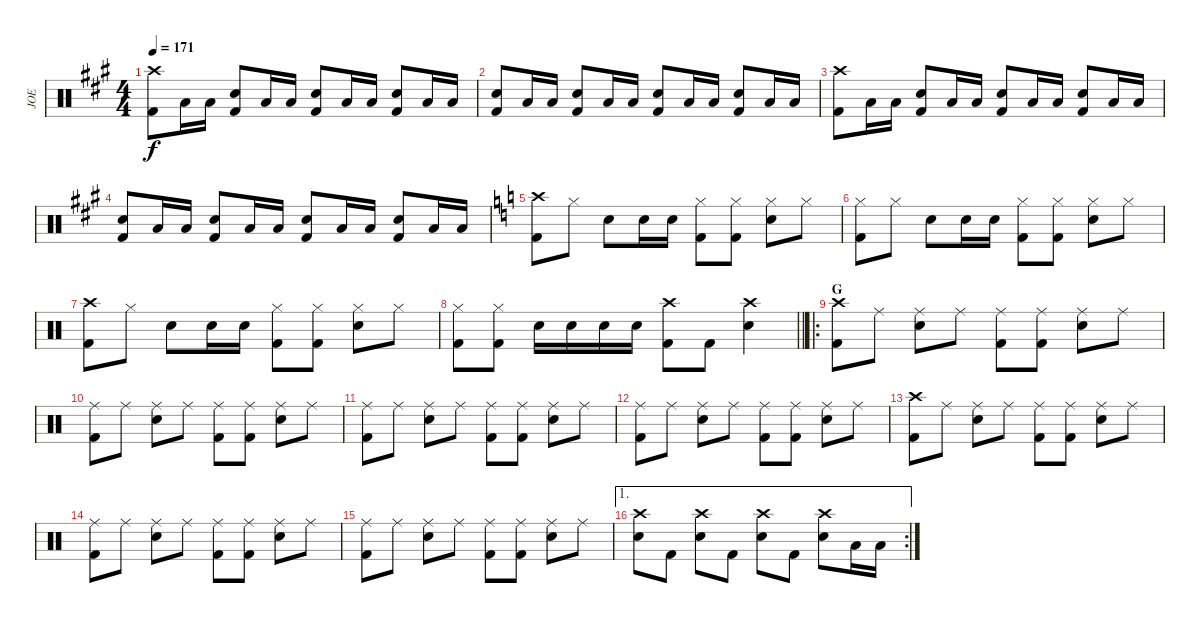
\track ("JOE" "JOE") {instrument percussion}
\staff {score}
\articulation defaults
\ts (4 4)
\tempo 171
\clef neutral
\ks a
("Crash high (hit)" "Kick (hit) 2").8{dy f} "Low Floor Tom (hit)".16 "Low Floor Tom (hit)".16 ("Snare (hit) 2" "Kick (hit) 2").8 "Low Floor Tom (hit)".16 "Low Floor Tom (hit)".16 ("Snare (hit) 2" "Kick (hit) 2").8 "Low Floor Tom (hit)".16 "Low Floor Tom (hit)".16 ("Snare (hit) 2" "Kick (hit) 2").8 "Low Floor Tom (hit)".16 "Low Floor Tom (hit)".16 |
("Snare (hit) 2" "Kick (hit) 2").8 "Low Floor Tom (hit)".16 "Low Floor Tom (hit)".16 ("Snare (hit) 2" "Kick (hit) 2").8 "Low Floor Tom (hit)".16 "Low Floor Tom (hit)".16 ("Snare (hit) 2" "Kick (hit) 2").8 "Low Floor Tom (hit)".16 "Low Floor Tom (hit)".16 ("Snare (hit) 2" "Kick (hit) 2").8 "Low Floor Tom (hit)".16 "Low Floor Tom (hit)".16 |
("Crash high (hit)" "Kick (hit) 2").8 "Low Floor Tom (hit)".16 "Low Floor Tom (hit)".16 ("Snare (hit) 2" "Kick (hit) 2").8 "Low Floor Tom (hit)".16 "Low Floor Tom (hit)".16 ("Snare (hit) 2" "Kick (hit) 2").8 "Low Floor Tom (hit)".16 "Low Floor Tom (hit)".16 ("Snare (hit) 2" "Kick (hit) 2").8 "Low Floor Tom (hit)".16 "Low Floor Tom (hit)".16 |
("Snare (hit) 2" "Kick (hit) 2").8 "Low Floor Tom (hit)".16 "Low Floor Tom (hit)".16 ("Snare (hit) 2" "Kick (hit) 2").8 "Low Floor Tom (hit)".16 "Low Floor Tom (hit)".16 ("Snare (hit) 2" "Kick (hit) 2").8 "Low Floor Tom (hit)".16 "Low Floor Tom (hit)".16 ("Snare (hit) 2" "Kick (hit) 2").8 "Low Floor Tom (hit)".16 "Low Floor Tom (hit)".16 |
\ks c
("Crash high (hit)" "Kick (hit) 2").8 "Hi-Hat (closed)".8 "Snare (hit) 2".8 "Snare (hit) 2".16 "Snare (hit) 2".16 ("Hi-Hat (closed)" "Kick (hit) 2").8 ("Hi-Hat (closed)" "Kick (hit) 2").8 ("Hi-Hat (closed)" "Snare (hit) 2").8 "Hi-Hat (closed)".8 |
("Hi-Hat (closed)" "Kick (hit) 2").8 "Hi-Hat (closed)".8 "Snare (hit) 2".8 "Snare (hit) 2".16 "Snare (hit) 2".16 ("Hi-Hat (closed)" "Kick (hit) 2").8 ("Hi-Hat (closed)" "Kick (hit) 2").8 ("Hi-Hat (closed)" "Snare (hit) 2").8 "Hi-Hat (closed)".8 |
("Crash high (hit)" "Kick (hit) 2").8 "Hi-Hat (closed)".8 "Snare (hit) 2".8 "Snare (hit) 2".16 "Snare (hit) 2".16 ("Hi-Hat (closed)" "Kick (hit) 2").8 ("Hi-Hat (closed)" "Kick (hit) 2").8 ("Hi-Hat (closed)" "Snare (hit) 2").8 "Hi-Hat (closed)".8 |
\barLineRight lightlight
("Hi-Hat (closed)" "Kick (hit) 2").8 ("Hi-Hat (closed)" "Kick (hit) 2").8 "Snare (hit) 2".16 "Snare (hit) 2".16 "Snare (hit) 2".16 "Snare (hit) 2".16 ("Crash high (hit)" "Kick (hit) 2").8 "Kick (hit) 2".8 ("Crash high (hit)" "Snare (hit) 2").4 |
\ro
\section ("" "G")
("Crash high (hit)" "Kick (hit) 2").8 "Ride (middle)".8 ("Ride (middle)" "Snare (hit) 2").8 "Ride (middle)".8 ("Ride (middle)" "Kick (hit) 2").8 ("Ride (middle)" "Kick (hit) 2").8 ("Ride (middle)" "Snare (hit) 2").8 "Ride (middle)".8 |
("Ride (middle)" "Kick (hit) 2").8 "Ride (middle)".8 ("Ride (middle)" "Snare (hit) 2").8 "Ride (middle)".8 ("Ride (middle)" "Kick (hit) 2").8 ("Ride (middle)" "Kick (hit) 2").8 ("Ride (middle)" "Snare (hit) 2").8 "Ride (middle)".8 |
("Ride (middle)" "Kick (hit) 2").8 "Ride (middle)".8 ("Ride (middle)" "Snare (hit) 2").8 "Ride (middle)".8 ("Ride (middle)" "Kick (hit) 2").8 ("Ride (middle)" "Kick (hit) 2").8 ("Ride (middle)" "Snare (hit) 2").8 "Ride (middle)".8 |
("Ride (middle)" "Kick (hit) 2").8 "Ride (middle)".8 ("Ride (middle)" "Snare (hit) 2").8 "Ride (middle)".8 ("Ride (middle)" "Kick (hit) 2").8 ("Ride (middle)" "Kick (hit) 2").8 ("Ride (middle)" "Snare (hit) 2").8 "Ride (middle)".8 |
("Crash high (hit)" "Kick (hit) 2").8 "Ride (middle)".8 ("Ride (middle)" "Snare (hit) 2").8 "Ride (middle)".8 ("Ride (middle)" "Kick (hit) 2").8 ("Ride (middle)" "Kick (hit) 2").8 ("Ride (middle)" "Snare (hit) 2").8 "Ride (middle)".8 |
("Ride (middle)" "Kick (hit) 2").8 "Ride (middle)".8 ("Ride (middle)" "Snare (hit) 2").8 "Ride (middle)".8 ("Ride (middle)" "Kick (hit) 2").8 ("Ride (middle)" "Kick (hit) 2").8 ("Ride (middle)" "Snare (hit) 2").8 "Ride (middle)".8 |
("Ride (middle)" "Kick (hit) 2").8 "Ride (middle)".8 ("Ride (middle)" "Snare (hit) 2").8 "Ride (middle)".8 ("Ride (middle)" "Kick (hit) 2").8 ("Ride (middle)" "Kick (hit) 2").8 ("Ride (middle)" "Snare (hit) 2").8 "Ride (middle)".8 |
\ae 1
\rc 2
("Crash high (hit)" "Snare (hit) 2").8 "Kick (hit) 2".8 ("Crash high (hit)" "Snare (hit) 2").8 "Kick (hit) 2".8 ("Crash high (hit)" "Snare (hit) 2").8 "Kick (hit) 2".8 ("Crash high (hit)" "Snare (hit) 2").8 "Low Tom (hit)".16 "Low Tom (hit)".16
